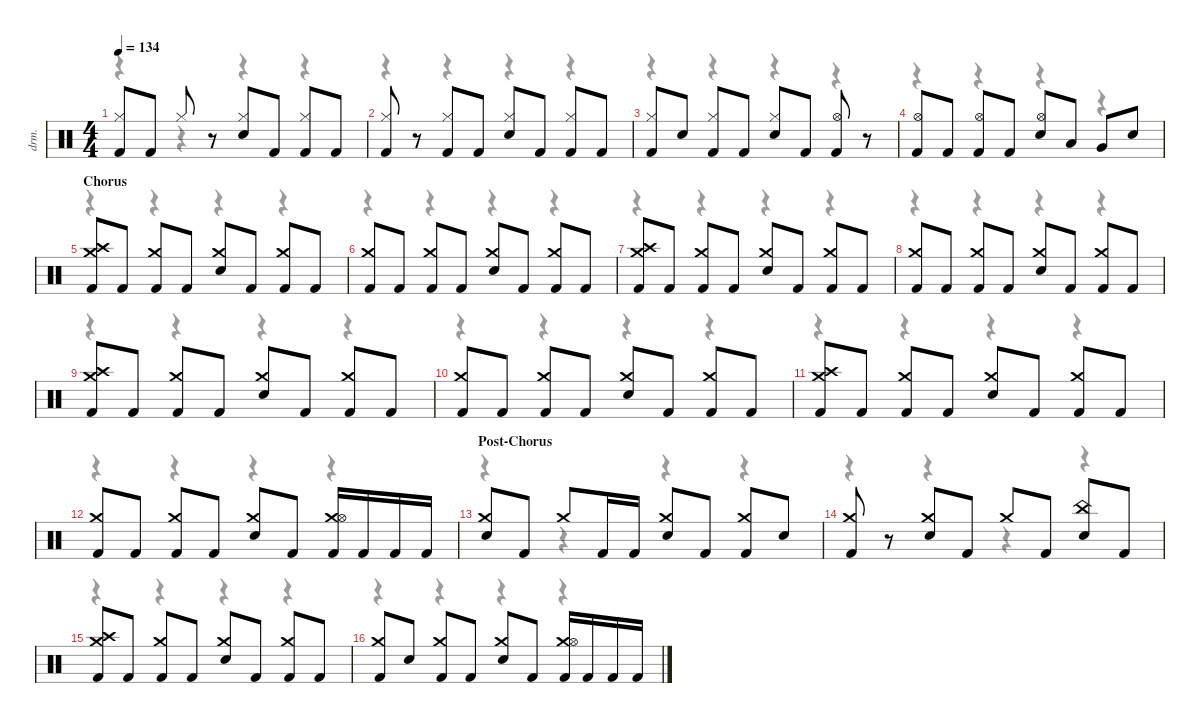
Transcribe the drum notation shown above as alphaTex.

\defaultSystemsLayout 4
\hideDynamics
\bracketExtendMode nobrackets
\track ("Alex Ballew" "drm.") {instrument percussion}
\staff {score}
\articulation defaults
\voice
\ts (4 4)
\tempo 134
\clef neutral
\ks c
("Hi-Hat (closed)" "Kick (hit) 2").8{dy f} "Kick (hit) 2".8 "Hi-Hat (closed)".8 r.8 ("Hi-Hat (closed)" "Snare (hit) 2").8 "Kick (hit) 2".8 ("Hi-Hat (closed)" "Kick (hit) 2").8 "Kick (hit) 2".8 |
("Hi-Hat (closed)" "Kick (hit) 2").8 r.8 ("Hi-Hat (closed)" "Kick (hit) 2").8 "Kick (hit) 2".8 ("Hi-Hat (closed)" "Snare (hit) 2").8 "Kick (hit) 2".8 ("Hi-Hat (closed)" "Kick (hit) 2").8 "Kick (hit) 2".8 |
("Hi-Hat (closed)" "Kick (hit) 2").8 "Snare (hit) 2".8 ("Hi-Hat (closed)" "Kick (hit) 2").8 "Kick (hit) 2".8 ("Hi-Hat (closed)" "Snare (hit) 2").8 "Kick (hit) 2".8 ("Hi-Hat (open)" "Kick (hit) 2").8 r.8 |
("Hi-Hat (open)" "Kick (hit) 2").8 "Kick (hit) 2".8 ("Hi-Hat (open)" "Kick (hit) 2").8 "Kick (hit) 2".8 ("Hi-Hat (open)" "Snare (hit) 2").8 "Low Tom (hit)".8 "Very Low Tom (hit)".8 "Snare (hit) 2".8 |
\section ("" "Chorus")
("Crash medium (hit)" "Crash high (hit)" "Kick (hit) 2").8 "Kick (hit) 2".8 ("Crash medium (hit)" "Kick (hit) 2").8 "Kick (hit) 2".8 ("Crash medium (hit)" "Snare (hit) 2").8 "Kick (hit) 2".8 ("Crash medium (hit)" "Kick (hit) 2").8 "Kick (hit) 2".8 |
("Crash medium (hit)" "Kick (hit) 2").8 "Kick (hit) 2".8 ("Crash medium (hit)" "Kick (hit) 2").8 "Kick (hit) 2".8 ("Crash medium (hit)" "Snare (hit) 2").8 "Kick (hit) 2".8 ("Crash medium (hit)" "Kick (hit) 2").8 "Kick (hit) 2".8 |
("Crash medium (hit)" "Crash high (hit)" "Kick (hit) 2").8 "Kick (hit) 2".8 ("Crash medium (hit)" "Kick (hit) 2").8 "Kick (hit) 2".8 ("Crash medium (hit)" "Snare (hit) 2").8 "Kick (hit) 2".8 ("Crash medium (hit)" "Kick (hit) 2").8 "Kick (hit) 2".8 |
("Crash medium (hit)" "Kick (hit) 2").8 "Kick (hit) 2".8 ("Crash medium (hit)" "Kick (hit) 2").8 "Kick (hit) 2".8 ("Crash medium (hit)" "Snare (hit) 2").8 "Kick (hit) 2".8 ("Crash medium (hit)" "Kick (hit) 2").8 "Kick (hit) 2".8 |
("Crash medium (hit)" "Crash high (hit)" "Kick (hit) 2").8 "Kick (hit) 2".8 ("Crash medium (hit)" "Kick (hit) 2").8 "Kick (hit) 2".8 ("Crash medium (hit)" "Snare (hit) 2").8 "Kick (hit) 2".8 ("Crash medium (hit)" "Kick (hit) 2").8 "Kick (hit) 2".8 |
("Crash medium (hit)" "Kick (hit) 2").8 "Kick (hit) 2".8 ("Crash medium (hit)" "Kick (hit) 2").8 "Kick (hit) 2".8 ("Crash medium (hit)" "Snare (hit) 2").8 "Kick (hit) 2".8 ("Crash medium (hit)" "Kick (hit) 2").8 "Kick (hit) 2".8 |
("Crash medium (hit)" "Crash high (hit)" "Kick (hit) 2").8 "Kick (hit) 2".8 ("Crash medium (hit)" "Kick (hit) 2").8 "Kick (hit) 2".8 ("Crash medium (hit)" "Snare (hit) 2").8 "Kick (hit) 2".8 ("Crash medium (hit)" "Kick (hit) 2").8 "Kick (hit) 2".8 |
("Crash medium (hit)" "Kick (hit) 2").8 "Kick (hit) 2".8 ("Crash medium (hit)" "Kick (hit) 2").8 "Kick (hit) 2".8 ("Crash medium (hit)" "Snare (hit) 2").8 "Kick (hit) 2".8 ("Crash medium (hit)" "Hi-Hat (open)" "Kick (hit) 2").16 "Kick (hit) 2".16 "Kick (hit) 2".16 "Kick (hit) 2".16 |
\section ("" "Post-Chorus")
("Crash medium (hit)" "Snare (hit) 2").8 "Kick (hit) 2".8 "Crash medium (hit)".8 "Kick (hit) 2".16 "Kick (hit) 2".16 ("Crash medium (hit)" "Snare (hit) 2").8 "Kick (hit) 2".8 ("Crash medium (hit)" "Kick (hit) 2").8 "Snare (hit) 2".8 |
("Crash medium (hit)" "Kick (hit) 2").8 r.8 ("Crash medium (hit)" "Snare (hit) 2").8 "Kick (hit) 2".8 "Crash medium (hit)".8 "Kick (hit) 2".8 ("China (hit)" "Snare (hit) 2").8 "Kick (hit) 2".8 |
("Crash medium (hit)" "Crash high (hit)" "Kick (hit) 2").8 "Kick (hit) 2".8 ("Crash medium (hit)" "Kick (hit) 2").8 "Kick (hit) 2".8 ("Crash medium (hit)" "Snare (hit) 2").8 "Kick (hit) 2".8 ("Crash medium (hit)" "Kick (hit) 2").8 "Kick (hit) 2".8 |
("Crash medium (hit)" "Kick (hit) 2").8 "Snare (hit) 2".8 ("Crash medium (hit)" "Kick (hit) 2").8 "Kick (hit) 2".8 ("Crash medium (hit)" "Snare (hit) 2").8 "Kick (hit) 2".8 ("Crash medium (hit)" "Hi-Hat (open)" "Kick (hit) 2").16 "Kick (hit) 2".16 "Kick (hit) 2".16 "Kick (hit) 2".16
\voice
\clef neutral
\ottava regular
\simile none
\ks c
r.4{dy mf} r.4 r.4 r.4 |
r.4 r.4 r.4 r.4 |
r.4 r.4 r.4 r.4 |
r.4 r.4 r.4 r.4 |
r.4 r.4 r.4 r.4 |
r.4 r.4 r.4 r.4 |
r.4 r.4 r.4 r.4 |
r.4 r.4 r.4 r.4 |
r.4 r.4 r.4 r.4 |
r.4 r.4 r.4 r.4 |
r.4 r.4 r.4 r.4 |
r.4 r.4 r.4 r.4 |
r.4 r.4 r.4 r.4 |
r.4 r.4 r.4 r.4 |
r.4 r.4 r.4 r.4 |
r.4 r.4 r.4 r.4
